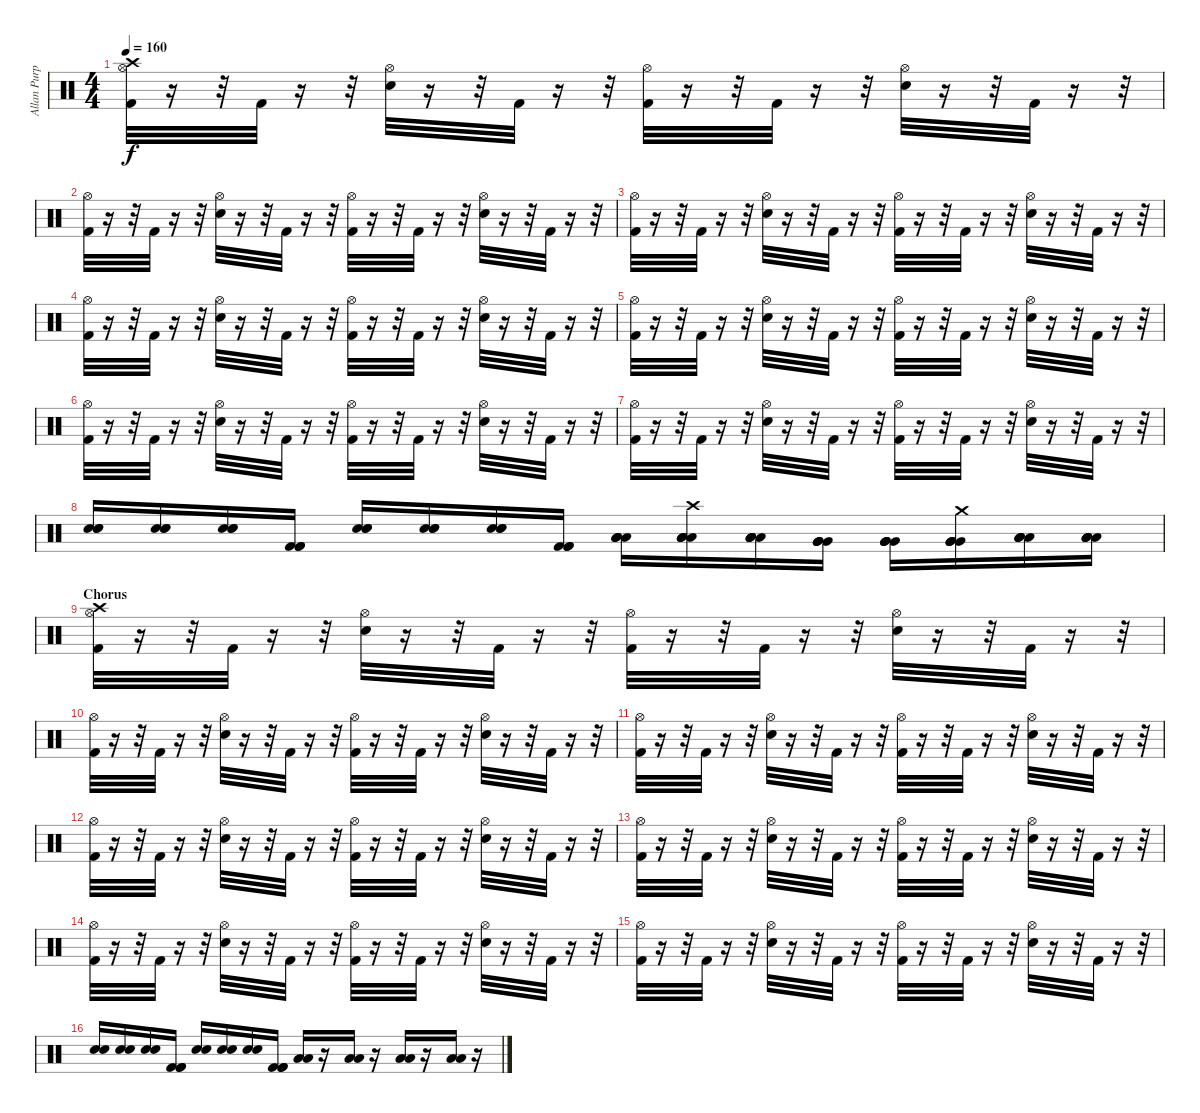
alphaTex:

\track ("Allan Purple" "Allan Purp") {instrument percussion}
\staff {score}
\articulation defaults
\ts (4 4)
\tempo 160
\clef neutral
\ks c
("Crash high (hit)" "Hi-Hat (open)" "Kick (hit) 2").32{dy f} r.16 r.32 "Kick (hit) 2".32 r.16 r.32 ("Hi-Hat (open)" "Electric Snare (hit)").32 r.16 r.32 "Kick (hit) 2".32 r.16 r.32 ("Hi-Hat (open)" "Kick (hit) 2").32 r.16 r.32 "Kick (hit) 2".32 r.16 r.32 ("Hi-Hat (open)" "Electric Snare (hit)").32 r.16 r.32 "Kick (hit) 2".32 r.16 r.32 |
("Hi-Hat (open)" "Kick (hit) 2").32 r.16 r.32 "Kick (hit) 2".32 r.16 r.32 ("Hi-Hat (open)" "Electric Snare (hit)").32 r.16 r.32 "Kick (hit) 2".32 r.16 r.32 ("Hi-Hat (open)" "Kick (hit) 2").32 r.16 r.32 "Kick (hit) 2".32 r.16 r.32 ("Hi-Hat (open)" "Electric Snare (hit)").32 r.16 r.32 "Kick (hit) 2".32 r.16 r.32 |
("Hi-Hat (open)" "Kick (hit) 2").32 r.16 r.32 "Kick (hit) 2".32 r.16 r.32 ("Hi-Hat (open)" "Electric Snare (hit)").32 r.16 r.32 "Kick (hit) 2".32 r.16 r.32 ("Hi-Hat (open)" "Kick (hit) 2").32 r.16 r.32 "Kick (hit) 2".32 r.16 r.32 ("Hi-Hat (open)" "Electric Snare (hit)").32 r.16 r.32 "Kick (hit) 2".32 r.16 r.32 |
("Hi-Hat (open)" "Kick (hit) 2").32 r.16 r.32 "Kick (hit) 2".32 r.16 r.32 ("Hi-Hat (open)" "Electric Snare (hit)").32 r.16 r.32 "Kick (hit) 2".32 r.16 r.32 ("Hi-Hat (open)" "Kick (hit) 2").32 r.16 r.32 "Kick (hit) 2".32 r.16 r.32 ("Hi-Hat (open)" "Electric Snare (hit)").32 r.16 r.32 "Kick (hit) 2".32 r.16 r.32 |
("Hi-Hat (open)" "Kick (hit) 2").32 r.16 r.32 "Kick (hit) 2".32 r.16 r.32 ("Hi-Hat (open)" "Electric Snare (hit)").32 r.16 r.32 "Kick (hit) 2".32 r.16 r.32 ("Hi-Hat (open)" "Kick (hit) 2").32 r.16 r.32 "Kick (hit) 2".32 r.16 r.32 ("Hi-Hat (open)" "Electric Snare (hit)").32 r.16 r.32 "Kick (hit) 2".32 r.16 r.32 |
("Hi-Hat (open)" "Kick (hit) 2").32 r.16 r.32 "Kick (hit) 2".32 r.16 r.32 ("Hi-Hat (open)" "Electric Snare (hit)").32 r.16 r.32 "Kick (hit) 2".32 r.16 r.32 ("Hi-Hat (open)" "Kick (hit) 2").32 r.16 r.32 "Kick (hit) 2".32 r.16 r.32 ("Hi-Hat (open)" "Electric Snare (hit)").32 r.16 r.32 "Kick (hit) 2".32 r.16 r.32 |
("Hi-Hat (open)" "Kick (hit) 2").32 r.16 r.32 "Kick (hit) 2".32 r.16 r.32 ("Hi-Hat (open)" "Electric Snare (hit)").32 r.16 r.32 "Kick (hit) 2".32 r.16 r.32 ("Hi-Hat (open)" "Kick (hit) 2").32 r.16 r.32 "Kick (hit) 2".32 r.16 r.32 ("Hi-Hat (open)" "Electric Snare (hit)").32 r.16 r.32 "Kick (hit) 2".32 r.16 r.32 |
("Electric Snare (hit)" "Electric Snare (hit)" "Electric Snare (hit)").16 ("Electric Snare (hit)" "Electric Snare (hit)" "Electric Snare (hit)").16 ("Electric Snare (hit)" "Electric Snare (hit)" "Electric Snare (hit)").16 ("Kick (hit) 2" "Kick (hit) 2" "Kick (hit) 2").16 ("Electric Snare (hit)" "Electric Snare (hit)" "Electric Snare (hit)").16 ("Electric Snare (hit)" "Electric Snare (hit)" "Electric Snare (hit)").16 ("Electric Snare (hit)" "Electric Snare (hit)" "Electric Snare (hit)").16 ("Kick (hit) 2" "Kick (hit) 2" "Kick (hit) 2").16 ("Low Tom (hit)" "Low Tom (hit)" "Low Tom (hit)" "Low Tom (hit)").16 ("Crash high (hit)" "Low Tom (hit)" "Low Tom (hit)" "Low Tom (hit)" "Low Tom (hit)").16 ("Low Tom (hit)" "Low Tom (hit)" "Low Tom (hit)" "Low Tom (hit)").16 ("Very Low Tom (hit)" "Very Low Tom (hit)" "Very Low Tom (hit)" "Very Low Tom (hit)").16 ("Very Low Tom (hit)" "Very Low Tom (hit)" "Very Low Tom (hit)" "Very Low Tom (hit)").16 ("Crash medium (hit)" "Very Low Tom (hit)" "Very Low Tom (hit)" "Very Low Tom (hit)" "Very Low Tom (hit)").16 ("Low Floor Tom (hit)" "Low Floor Tom (hit)" "Low Floor Tom (hit)" "Low Floor Tom (hit)").16 ("Low Floor Tom (hit)" "Low Floor Tom (hit)" "Low Floor Tom (hit)" "Low Floor Tom (hit)").16 |
\section ("" "Chorus")
("Crash high (hit)" "Hi-Hat (open)" "Kick (hit) 2").32 r.16 r.32 "Kick (hit) 2".32 r.16 r.32 ("Hi-Hat (open)" "Electric Snare (hit)").32 r.16 r.32 "Kick (hit) 2".32 r.16 r.32 ("Hi-Hat (open)" "Kick (hit) 2").32 r.16 r.32 "Kick (hit) 2".32 r.16 r.32 ("Hi-Hat (open)" "Electric Snare (hit)").32 r.16 r.32 "Kick (hit) 2".32 r.16 r.32 |
("Hi-Hat (open)" "Kick (hit) 2").32 r.16 r.32 "Kick (hit) 2".32 r.16 r.32 ("Hi-Hat (open)" "Electric Snare (hit)").32 r.16 r.32 "Kick (hit) 2".32 r.16 r.32 ("Hi-Hat (open)" "Kick (hit) 2").32 r.16 r.32 "Kick (hit) 2".32 r.16 r.32 ("Hi-Hat (open)" "Electric Snare (hit)").32 r.16 r.32 "Kick (hit) 2".32 r.16 r.32 |
("Hi-Hat (open)" "Kick (hit) 2").32 r.16 r.32 "Kick (hit) 2".32 r.16 r.32 ("Hi-Hat (open)" "Electric Snare (hit)").32 r.16 r.32 "Kick (hit) 2".32 r.16 r.32 ("Hi-Hat (open)" "Kick (hit) 2").32 r.16 r.32 "Kick (hit) 2".32 r.16 r.32 ("Hi-Hat (open)" "Electric Snare (hit)").32 r.16 r.32 "Kick (hit) 2".32 r.16 r.32 |
("Hi-Hat (open)" "Kick (hit) 2").32 r.16 r.32 "Kick (hit) 2".32 r.16 r.32 ("Hi-Hat (open)" "Electric Snare (hit)").32 r.16 r.32 "Kick (hit) 2".32 r.16 r.32 ("Hi-Hat (open)" "Kick (hit) 2").32 r.16 r.32 "Kick (hit) 2".32 r.16 r.32 ("Hi-Hat (open)" "Electric Snare (hit)").32 r.16 r.32 "Kick (hit) 2".32 r.16 r.32 |
("Hi-Hat (open)" "Kick (hit) 2").32 r.16 r.32 "Kick (hit) 2".32 r.16 r.32 ("Hi-Hat (open)" "Electric Snare (hit)").32 r.16 r.32 "Kick (hit) 2".32 r.16 r.32 ("Hi-Hat (open)" "Kick (hit) 2").32 r.16 r.32 "Kick (hit) 2".32 r.16 r.32 ("Hi-Hat (open)" "Electric Snare (hit)").32 r.16 r.32 "Kick (hit) 2".32 r.16 r.32 |
("Hi-Hat (open)" "Kick (hit) 2").32 r.16 r.32 "Kick (hit) 2".32 r.16 r.32 ("Hi-Hat (open)" "Electric Snare (hit)").32 r.16 r.32 "Kick (hit) 2".32 r.16 r.32 ("Hi-Hat (open)" "Kick (hit) 2").32 r.16 r.32 "Kick (hit) 2".32 r.16 r.32 ("Hi-Hat (open)" "Electric Snare (hit)").32 r.16 r.32 "Kick (hit) 2".32 r.16 r.32 |
("Hi-Hat (open)" "Kick (hit) 2").32 r.16 r.32 "Kick (hit) 2".32 r.16 r.32 ("Hi-Hat (open)" "Electric Snare (hit)").32 r.16 r.32 "Kick (hit) 2".32 r.16 r.32 ("Hi-Hat (open)" "Kick (hit) 2").32 r.16 r.32 "Kick (hit) 2".32 r.16 r.32 ("Hi-Hat (open)" "Electric Snare (hit)").32 r.16 r.32 "Kick (hit) 2".32 r.16 r.32 |
("Electric Snare (hit)" "Electric Snare (hit)").16 ("Electric Snare (hit)" "Electric Snare (hit)").16 ("Electric Snare (hit)" "Electric Snare (hit)").16 ("Kick (hit) 2" "Kick (hit) 2" "Kick (hit) 2").16 ("Electric Snare (hit)" "Electric Snare (hit)").16 ("Electric Snare (hit)" "Electric Snare (hit)").16 ("Electric Snare (hit)" "Electric Snare (hit)").16 ("Kick (hit) 2" "Kick (hit) 2" "Kick (hit) 2").16 ("Low Tom (hit)" "Low Tom (hit)").16 r.16 ("Low Tom (hit)" "Low Tom (hit)").16 r.16 ("Low Tom (hit)" "Low Tom (hit)").16 r.16 ("Low Tom (hit)" "Low Tom (hit)").16 r.16
